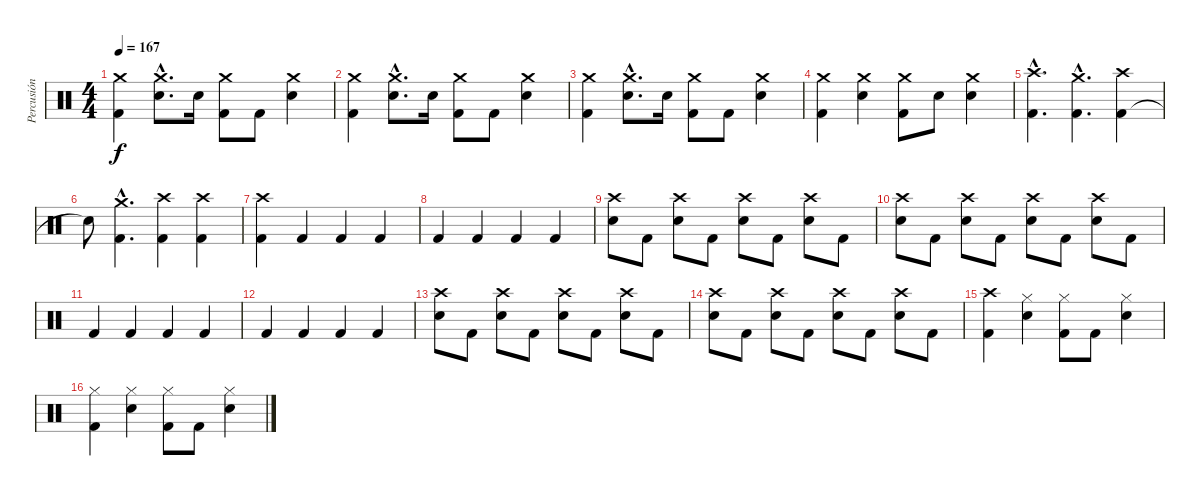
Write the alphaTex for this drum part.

\track ("Percusión" "Percusión") {instrument percussion}
\staff {score}
\articulation defaults
\ts (4 4)
\tempo 167
\clef neutral
\ks c
("Crash medium (hit)" "Kick (hit) 2").4{dy f} ("Crash medium (hit)"{hac} "Electric Snare (hit)"{hac}).8{d} "Electric Snare (hit)".16 ("Crash medium (hit)" "Kick (hit) 2").8 "Kick (hit) 2".8 ("Crash medium (hit)" "Electric Snare (hit)").4 |
("Crash medium (hit)" "Kick (hit) 2").4 ("Crash medium (hit)"{hac} "Electric Snare (hit)"{hac}).8{d} "Electric Snare (hit)".16 ("Crash medium (hit)" "Kick (hit) 2").8 "Kick (hit) 2".8 ("Crash medium (hit)" "Electric Snare (hit)").4 |
("Crash medium (hit)" "Kick (hit) 2").4 ("Crash medium (hit)"{hac} "Electric Snare (hit)"{hac}).8{d} "Electric Snare (hit)".16 ("Crash medium (hit)" "Kick (hit) 2").8 "Kick (hit) 2".8 ("Crash medium (hit)" "Electric Snare (hit)").4 |
("Crash medium (hit)" "Kick (hit) 2").4 ("Crash medium (hit)" "Electric Snare (hit)").4 ("Crash medium (hit)" "Kick (hit) 2").8 "Electric Snare (hit)".8 ("Crash medium (hit)" "Electric Snare (hit)").4 |
("Kick (hit) 2"{hac} "Crash high (hit)"{hac}).4{d} ("Kick (hit) 2"{hac} "Crash medium (hit)"{hac}).4{d} ("Kick (hit) 2" "Crash high (hit)").4 |
"Snare (hit)"{t}.8 ("Kick (hit) 2"{hac} "Crash medium (hit)"{hac}).4{d} ("Kick (hit) 2" "Crash high (hit)").4 ("Kick (hit) 2" "Crash high (hit)").4 |
("Kick (hit) 2" "Crash high (hit)").4 "Kick (hit) 2".4 "Kick (hit) 2".4 "Kick (hit) 2".4 |
"Kick (hit) 2".4 "Kick (hit) 2".4 "Kick (hit) 2".4 "Kick (hit) 2".4 |
("Crash high (hit)" "Electric Snare (hit)").8 "Kick (hit) 2".8 ("Crash high (hit)" "Electric Snare (hit)").8 "Kick (hit) 2".8 ("Crash high (hit)" "Electric Snare (hit)").8 "Kick (hit) 2".8 ("Crash high (hit)" "Electric Snare (hit)").8 "Kick (hit) 2".8 |
("Crash high (hit)" "Electric Snare (hit)").8 "Kick (hit) 2".8 ("Crash high (hit)" "Electric Snare (hit)").8 "Kick (hit) 2".8 ("Crash high (hit)" "Electric Snare (hit)").8 "Kick (hit) 2".8 ("Crash high (hit)" "Electric Snare (hit)").8 "Kick (hit) 2".8 |
"Kick (hit) 2".4 "Kick (hit) 2".4 "Kick (hit) 2".4 "Kick (hit) 2".4 |
"Kick (hit) 2".4 "Kick (hit) 2".4 "Kick (hit) 2".4 "Kick (hit) 2".4 |
("Crash high (hit)" "Electric Snare (hit)").8 "Kick (hit) 2".8 ("Crash high (hit)" "Electric Snare (hit)").8 "Kick (hit) 2".8 ("Crash high (hit)" "Electric Snare (hit)").8 "Kick (hit) 2".8 ("Crash high (hit)" "Electric Snare (hit)").8 "Kick (hit) 2".8 |
("Crash high (hit)" "Electric Snare (hit)").8 "Kick (hit) 2".8 ("Crash high (hit)" "Electric Snare (hit)").8 "Kick (hit) 2".8 ("Crash high (hit)" "Electric Snare (hit)").8 "Kick (hit) 2".8 ("Crash high (hit)" "Electric Snare (hit)").8 "Kick (hit) 2".8 |
("Crash high (hit)" "Kick (hit) 2").4 ("Hi-Hat (closed)" "Electric Snare (hit)").4 ("Hi-Hat (closed)" "Kick (hit) 2").8 "Kick (hit) 2".8 ("Hi-Hat (closed)" "Electric Snare (hit)").4 |
("Hi-Hat (closed)" "Kick (hit) 2").4 ("Hi-Hat (closed)" "Electric Snare (hit)").4 ("Hi-Hat (closed)" "Kick (hit) 2").8 "Kick (hit) 2".8 ("Hi-Hat (closed)" "Electric Snare (hit)").4
